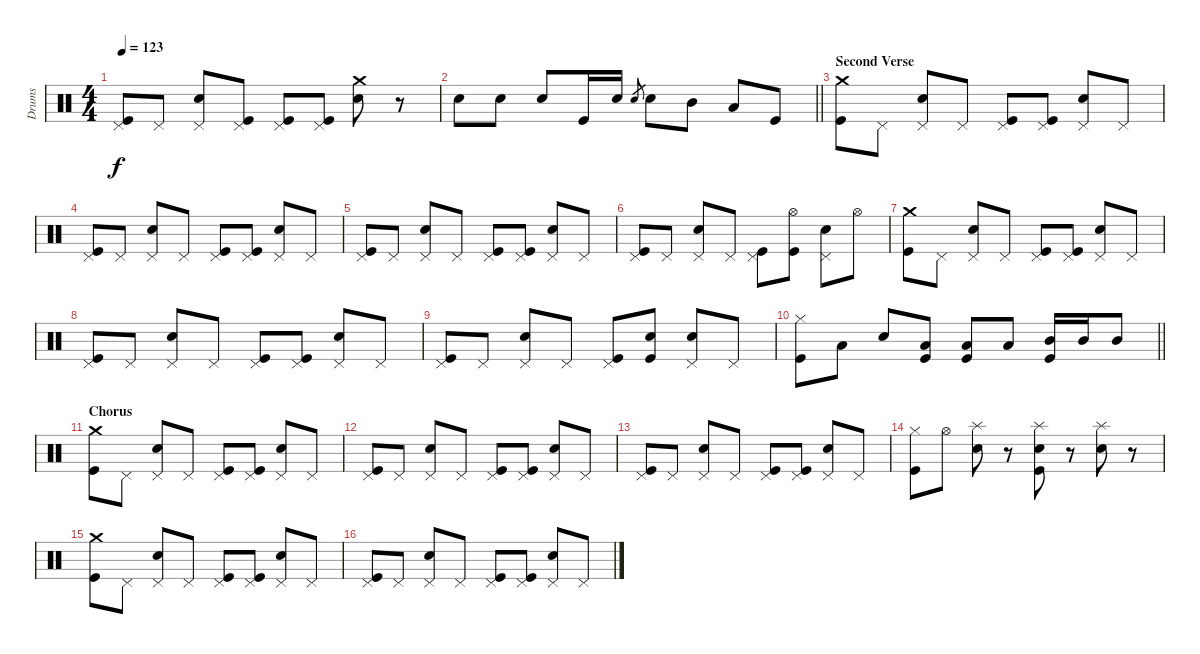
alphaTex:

\track ("Drums" "Drums") {instrument percussion}
\staff {score}
\articulation defaults
\ts (4 4)
\tempo 123
\clef neutral
\ks c
("Pedal Hi-Hat (hit)" "Kick (hit)").8{dy f} "Pedal Hi-Hat (hit)".8 ("Pedal Hi-Hat (hit)" "Electric Snare (hit)").8 ("Pedal Hi-Hat (hit)" "Kick (hit)").8 ("Pedal Hi-Hat (hit)" "Kick (hit)").8 ("Pedal Hi-Hat (hit)" "Kick (hit)").8 ("Crash medium (hit)" "Electric Snare (hit)").8 r.8 |
\barLineRight lightlight "Snare (hit) 2".8 "Snare (hit) 2".8 "Snare (hit) 2".8 "Kick (hit)".16 "Snare (hit) 2".16 "Snare (hit) 2".8{gr} "Snare (hit) 2".8 "Mid Tom (hit)".8 "Low Tom (hit)".8 "Kick (hit)".8
|
\section ("" "Second Verse")
("Crash medium (hit)" "Kick (hit)").8 "Pedal Hi-Hat (hit)".8 ("Pedal Hi-Hat (hit)" "Electric Snare (hit)").8 "Pedal Hi-Hat (hit)".8 ("Pedal Hi-Hat (hit)" "Kick (hit)").8 ("Pedal Hi-Hat (hit)" "Kick (hit)").8 ("Pedal Hi-Hat (hit)" "Electric Snare (hit)").8 "Pedal Hi-Hat (hit)".8 |
("Pedal Hi-Hat (hit)" "Kick (hit)").8 "Pedal Hi-Hat (hit)".8 ("Pedal Hi-Hat (hit)" "Electric Snare (hit)").8 "Pedal Hi-Hat (hit)".8 ("Pedal Hi-Hat (hit)" "Kick (hit)").8 ("Pedal Hi-Hat (hit)" "Kick (hit)").8 ("Pedal Hi-Hat (hit)" "Electric Snare (hit)").8 "Pedal Hi-Hat (hit)".8 |
("Pedal Hi-Hat (hit)" "Kick (hit)").8 "Pedal Hi-Hat (hit)".8 ("Pedal Hi-Hat (hit)" "Electric Snare (hit)").8 "Pedal Hi-Hat (hit)".8 ("Pedal Hi-Hat (hit)" "Kick (hit)").8 ("Pedal Hi-Hat (hit)" "Kick (hit)").8 ("Pedal Hi-Hat (hit)" "Electric Snare (hit)").8 "Pedal Hi-Hat (hit)".8 |
("Pedal Hi-Hat (hit)" "Kick (hit)").8 "Pedal Hi-Hat (hit)".8 ("Pedal Hi-Hat (hit)" "Electric Snare (hit)").8 "Pedal Hi-Hat (hit)".8 ("Pedal Hi-Hat (hit)" "Kick (hit)").8 ("Hi-Hat (open)" "Kick (hit)").8 ("Pedal Hi-Hat (hit)" "Electric Snare (hit)").8 "Hi-Hat (open)".8 |
("Crash medium (hit)" "Kick (hit)").8 "Pedal Hi-Hat (hit)".8 ("Pedal Hi-Hat (hit)" "Electric Snare (hit)").8 "Pedal Hi-Hat (hit)".8 ("Pedal Hi-Hat (hit)" "Kick (hit)").8 ("Pedal Hi-Hat (hit)" "Kick (hit)").8 ("Pedal Hi-Hat (hit)" "Electric Snare (hit)").8 "Pedal Hi-Hat (hit)".8 |
("Pedal Hi-Hat (hit)" "Kick (hit)").8 "Pedal Hi-Hat (hit)".8 ("Pedal Hi-Hat (hit)" "Electric Snare (hit)").8 "Pedal Hi-Hat (hit)".8 ("Pedal Hi-Hat (hit)" "Kick (hit)").8 ("Pedal Hi-Hat (hit)" "Kick (hit)").8 ("Pedal Hi-Hat (hit)" "Electric Snare (hit)").8 "Pedal Hi-Hat (hit)".8 |
("Pedal Hi-Hat (hit)" "Kick (hit)").8 "Pedal Hi-Hat (hit)".8 ("Pedal Hi-Hat (hit)" "Electric Snare (hit)").8 "Pedal Hi-Hat (hit)".8 ("Pedal Hi-Hat (hit)" "Kick (hit)").8 ("Snare (hit)" "Kick (hit)").8 ("Pedal Hi-Hat (hit)" "Electric Snare (hit)").8 "Pedal Hi-Hat (hit)".8 |
\barLineRight lightlight
("Hi-Hat (closed)" "Kick (hit)").8 "Low Tom (hit)".8 "Snare (hit) 2".8 ("Low Tom (hit)" "Kick (hit)").8 ("Low Tom (hit)" "Kick (hit)").8 "Low Tom (hit)".8 ("Mid Tom (hit)" "Kick (hit)").16 "Mid Tom (hit)".16 "Mid Tom (hit)".8 |
\section ("" "Chorus")
("Crash medium (hit)" "Kick (hit)").8 "Pedal Hi-Hat (hit)".8 ("Pedal Hi-Hat (hit)" "Electric Snare (hit)").8 "Pedal Hi-Hat (hit)".8 ("Pedal Hi-Hat (hit)" "Kick (hit)").8 ("Pedal Hi-Hat (hit)" "Kick (hit)").8 ("Pedal Hi-Hat (hit)" "Electric Snare (hit)").8 "Pedal Hi-Hat (hit)".8 |
("Pedal Hi-Hat (hit)" "Kick (hit)").8 "Pedal Hi-Hat (hit)".8 ("Pedal Hi-Hat (hit)" "Electric Snare (hit)").8 "Pedal Hi-Hat (hit)".8 ("Pedal Hi-Hat (hit)" "Kick (hit)").8 ("Pedal Hi-Hat (hit)" "Kick (hit)").8 ("Pedal Hi-Hat (hit)" "Electric Snare (hit)").8 "Pedal Hi-Hat (hit)".8 |
("Pedal Hi-Hat (hit)" "Kick (hit)").8 "Pedal Hi-Hat (hit)".8 ("Pedal Hi-Hat (hit)" "Electric Snare (hit)").8 "Pedal Hi-Hat (hit)".8 ("Pedal Hi-Hat (hit)" "Kick (hit)").8 ("Pedal Hi-Hat (hit)" "Kick (hit)").8 ("Pedal Hi-Hat (hit)" "Electric Snare (hit)").8 "Pedal Hi-Hat (hit)".8 |
("Hi-Hat (closed)" "Kick (hit)").8 "Hi-Hat (open)".8 ("Splash (hit)" "Snare (hit) 2").8 r.8 ("Splash (hit)" "Snare (hit) 2" "Kick (hit)").8 r.8 ("Splash (hit)" "Snare (hit) 2").8 r.8 |
("Crash medium (hit)" "Kick (hit)").8 "Pedal Hi-Hat (hit)".8 ("Pedal Hi-Hat (hit)" "Electric Snare (hit)").8 "Pedal Hi-Hat (hit)".8 ("Pedal Hi-Hat (hit)" "Kick (hit)").8 ("Pedal Hi-Hat (hit)" "Kick (hit)").8 ("Pedal Hi-Hat (hit)" "Electric Snare (hit)").8 "Pedal Hi-Hat (hit)".8 |
("Pedal Hi-Hat (hit)" "Kick (hit)").8 "Pedal Hi-Hat (hit)".8 ("Pedal Hi-Hat (hit)" "Electric Snare (hit)").8 "Pedal Hi-Hat (hit)".8 ("Pedal Hi-Hat (hit)" "Kick (hit)").8 ("Pedal Hi-Hat (hit)" "Kick (hit)").8 ("Pedal Hi-Hat (hit)" "Electric Snare (hit)").8 "Pedal Hi-Hat (hit)".8
